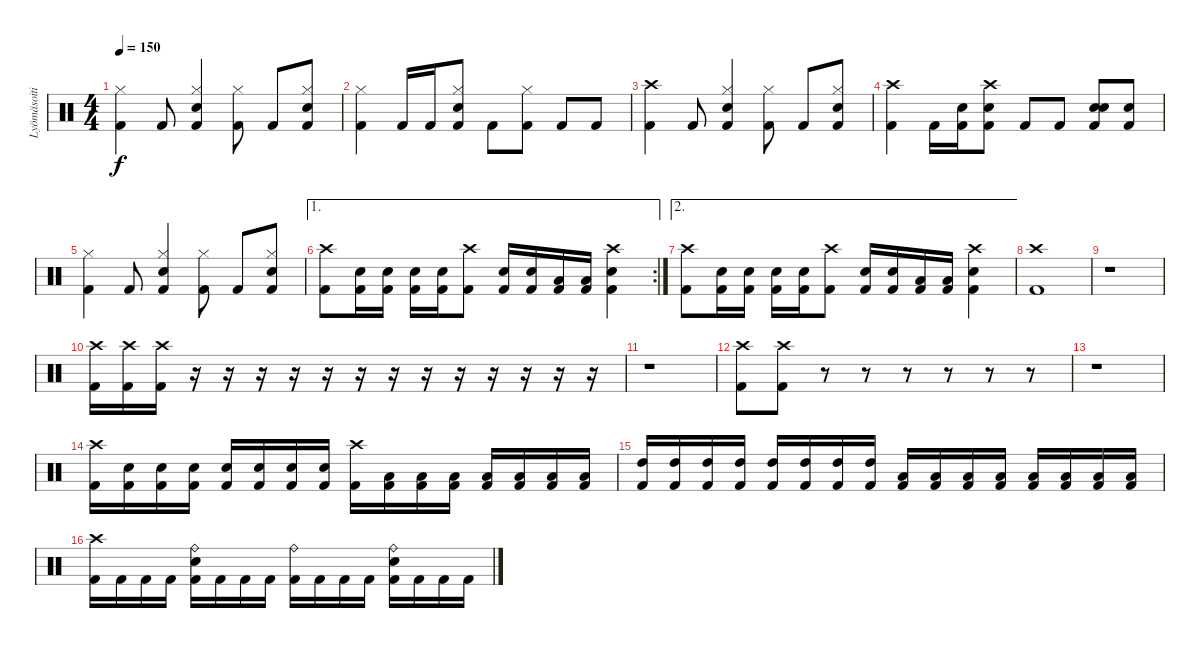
\track ("Lyömäsoitin" "Lyömäsoiti") {instrument percussion}
\staff {score}
\articulation defaults
\ts (4 4)
\tempo 150
\clef neutral
\ks c
("Kick (hit) 2" "Hi-Hat (closed)").4{dy f} "Kick (hit) 2".8 ("Kick (hit) 2" "Hi-Hat (closed)" "Electric Snare (hit)").4 ("Kick (hit) 2" "Hi-Hat (closed)").8 "Kick (hit) 2".8 ("Kick (hit) 2" "Hi-Hat (closed)" "Electric Snare (hit)").8 |
("Kick (hit) 2" "Hi-Hat (closed)").4 "Kick (hit) 2".16 "Kick (hit) 2".16 ("Kick (hit) 2" "Hi-Hat (closed)" "Electric Snare (hit)").8 "Kick (hit) 2".8 ("Kick (hit) 2" "Hi-Hat (closed)").8 "Kick (hit) 2".8 "Kick (hit) 2".8 |
("Kick (hit) 2" "Crash high (hit)").4 "Kick (hit) 2".8 ("Kick (hit) 2" "Hi-Hat (closed)" "Electric Snare (hit)").4 ("Kick (hit) 2" "Hi-Hat (closed)").8 "Kick (hit) 2".8 ("Kick (hit) 2" "Hi-Hat (closed)" "Electric Snare (hit)").8 |
("Kick (hit) 2" "Crash high (hit)").4 "Kick (hit) 2".16 ("Kick (hit) 2" "Snare (hit)").16 ("Kick (hit) 2" "Crash high (hit)" "Electric Snare (hit)").8 "Kick (hit) 2".8 "Kick (hit) 2".8 ("Kick (hit) 2" "Electric Snare (hit)" "Electric Snare (hit)").8 ("Kick (hit) 2" "Electric Snare (hit)").8 |
("Kick (hit) 2" "Hi-Hat (closed)").4 "Kick (hit) 2".8 ("Kick (hit) 2" "Hi-Hat (closed)" "Electric Snare (hit)").4 ("Kick (hit) 2" "Hi-Hat (closed)").8 "Kick (hit) 2".8 ("Kick (hit) 2" "Hi-Hat (closed)" "Electric Snare (hit)").8 |
\ae 1
\rc 2
("Kick (hit) 2" "Crash high (hit)").8 ("Kick (hit) 2" "Electric Snare (hit)").16 ("Kick (hit) 2" "Electric Snare (hit)").16 ("Kick (hit) 2" "Electric Snare (hit)").16 ("Kick (hit) 2" "Electric Snare (hit)").16 ("Kick (hit) 2" "Crash high (hit)").8 ("Kick (hit) 2" "Electric Snare (hit)").16 ("Kick (hit) 2" "Electric Snare (hit)").16 ("Kick (hit) 2" "Low Tom (hit)").16 ("Kick (hit) 2" "Low Tom (hit)").16 ("Kick (hit) 2" "Crash high (hit)" "Electric Snare (hit)").4 |
\ae 2
("Kick (hit) 2" "Crash high (hit)").8 ("Kick (hit) 2" "Electric Snare (hit)").16 ("Kick (hit) 2" "Electric Snare (hit)").16 ("Kick (hit) 2" "Electric Snare (hit)").16 ("Kick (hit) 2" "Electric Snare (hit)").16 ("Kick (hit) 2" "Crash high (hit)").8 ("Kick (hit) 2" "Electric Snare (hit)").16 ("Kick (hit) 2" "Electric Snare (hit)").16 ("Kick (hit) 2" "Low Tom (hit)").16 ("Kick (hit) 2" "Low Tom (hit)").16 ("Kick (hit) 2" "Crash high (hit)" "Electric Snare (hit)").4 |
("Kick (hit) 2" "Crash high (hit)").1 |
r.1 |
("Crash high (hit)" "Kick (hit) 2").16 ("Crash high (hit)" "Kick (hit) 2").16 ("Crash high (hit)" "Kick (hit) 2").16 r.16 r.16 r.16 r.16 r.16 r.16 r.16 r.16 r.16 r.16 r.16 r.16 r.16 |
r.1 |
("Kick (hit) 2" "Crash high (hit)").8 ("Kick (hit) 2" "Crash high (hit)").8 r.8 r.8 r.8 r.8 r.8 r.8 |
r.1 |
("Kick (hit) 2" "Crash high (hit)").16 ("Kick (hit) 2" "Electric Snare (hit)").16 ("Kick (hit) 2" "Electric Snare (hit)").16 ("Kick (hit) 2" "Electric Snare (hit)").16 ("Kick (hit) 2" "Electric Snare (hit)").16 ("Kick (hit) 2" "Electric Snare (hit)").16 ("Kick (hit) 2" "Electric Snare (hit)").16 ("Kick (hit) 2" "Electric Snare (hit)").16 ("Kick (hit) 2" "Crash high (hit)").16 ("Kick (hit) 2" "Low Tom (hit)").16 ("Kick (hit) 2" "Low Tom (hit)").16 ("Kick (hit) 2" "Low Tom (hit)").16 ("Kick (hit) 2" "Low Tom (hit)").16 ("Kick (hit) 2" "Low Tom (hit)").16 ("Kick (hit) 2" "Low Tom (hit)").16 ("Kick (hit) 2" "Low Tom (hit)").16 |
("Kick (hit) 2" "High Tom (hit)").16 ("Kick (hit) 2" "High Tom (hit)").16 ("Kick (hit) 2" "High Tom (hit)").16 ("Kick (hit) 2" "High Tom (hit)").16 ("Kick (hit) 2" "High Tom (hit)").16 ("Kick (hit) 2" "High Tom (hit)").16 ("Kick (hit) 2" "High Tom (hit)").16 ("Kick (hit) 2" "High Tom (hit)").16 ("Kick (hit) 2" "Low Tom (hit)").16 ("Kick (hit) 2" "Low Tom (hit)").16 ("Kick (hit) 2" "Low Tom (hit)").16 ("Kick (hit) 2" "Low Tom (hit)").16 ("Kick (hit) 2" "Low Tom (hit)").16 ("Kick (hit) 2" "Low Tom (hit)").16 ("Kick (hit) 2" "Low Tom (hit)").16 ("Kick (hit) 2" "Low Tom (hit)").16 |
("Kick (hit) 2" "Crash high (hit)").16 "Kick (hit) 2".16 "Kick (hit) 2".16 "Kick (hit) 2".16 ("Kick (hit) 2" "Electric Snare (hit)" "Ride (bell)").16 "Kick (hit) 2".16 "Kick (hit) 2".16 "Kick (hit) 2".16 ("Kick (hit) 2" "Ride (bell)").16 "Kick (hit) 2".16 "Kick (hit) 2".16 "Kick (hit) 2".16 ("Kick (hit) 2" "Ride (bell)" "Electric Snare (hit)").16 "Kick (hit) 2".16 "Kick (hit) 2".16 "Kick (hit) 2".16
